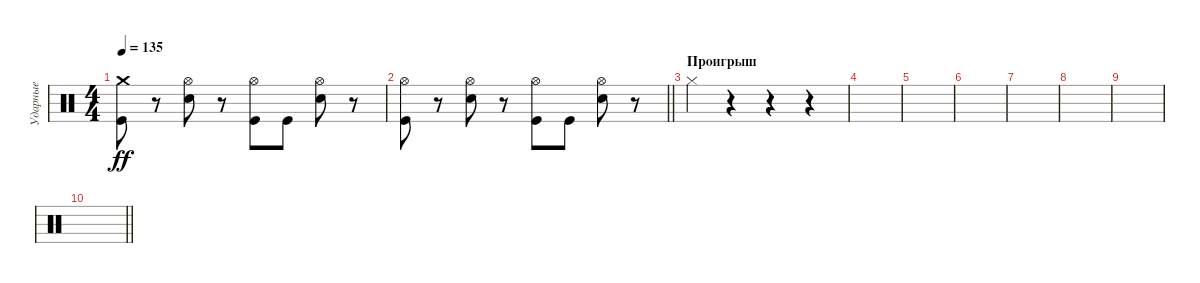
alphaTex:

\track ("Ударные" "Ударные") {instrument percussion}
\staff {score}
\articulation defaults
\ts (4 4)
\tempo 135
\clef neutral
\ks c
("Crash medium (hit)" "Kick (hit)").8{dy ff} r.8 ("Hi-Hat (open)" "Electric Snare (hit)").8 r.8 ("Hi-Hat (open)" "Kick (hit)").8 "Kick (hit)".8 ("Hi-Hat (open)" "Electric Snare (hit)").8 r.8 |
\barLineRight lightlight
("Hi-Hat (open)" "Kick (hit)").8 r.8 ("Hi-Hat (open)" "Electric Snare (hit)").8 r.8 ("Hi-Hat (open)" "Kick (hit)").8 "Kick (hit)".8 ("Hi-Hat (open)" "Electric Snare (hit)").8 r.8 |
\section ("" "Проигрыш")
"Hi-Hat (closed)".4 r.4 r.4 r.4 |
|
|
|
|
|
|
\barLineRight lightlight
